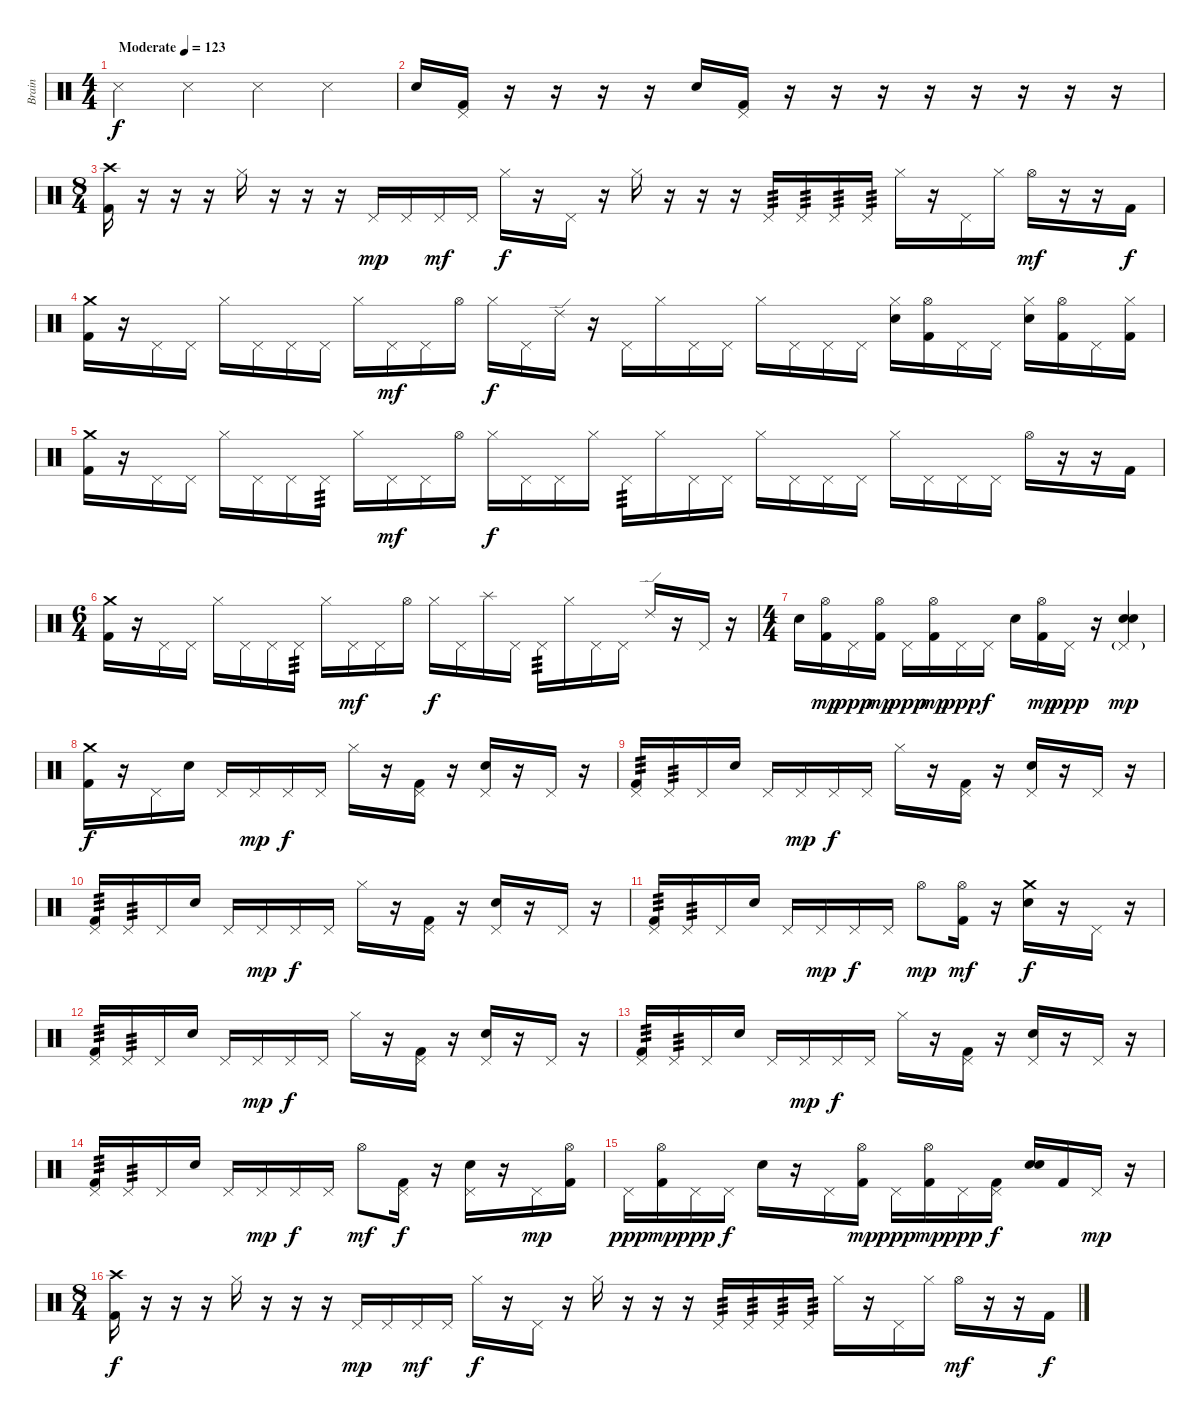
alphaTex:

\track ("Brain" "Brain") {instrument percussion}
\staff {score}
\articulation defaults
\ts (4 4)
\tempo (123 "Moderate")
\clef neutral
\ks c "Snare (side stick) 3".4{dy f} "Snare (side stick) 3".4 "Snare (side stick) 3".4 "Snare (side stick) 3".4
|
"Electric Snare (hit)".16 ("Pedal Hi-Hat (hit)" "Kick (hit) 2").16 r.16 r.16 r.16 r.16 "Electric Snare (hit)".16 ("Pedal Hi-Hat (hit)" "Kick (hit) 2").16 r.16 r.16 r.16 r.16 r.16 r.16 r.16 r.16 |
\ts (8 4)
("Crash high (hit)" "Kick (hit) 2").16 r.16 r.16 r.16 "Hi-Hat (closed)".16 r.16 r.16 r.16 "Pedal Hi-Hat (hit)".16{dy mp} "Pedal Hi-Hat (hit)".16 "Pedal Hi-Hat (hit)".16{dy mf} "Pedal Hi-Hat (hit)".16 "Hi-Hat (closed)".16{dy f} r.16 "Pedal Hi-Hat (hit)".16 r.16 "Hi-Hat (closed)".16 r.16 r.16 r.16 "Pedal Hi-Hat (hit)".16{tp 3} "Pedal Hi-Hat (hit)".16{tp 3} "Pedal Hi-Hat (hit)".16{tp 3} "Pedal Hi-Hat (hit)".16{tp 3} "Hi-Hat (closed)".16 r.16 "Pedal Hi-Hat (hit)".16 "Hi-Hat (closed)".16 "Hi-Hat (open)".16{dy mf} r.16 r.16 "Kick (hit) 2".16{dy f} |
("Crash medium (hit)" "Kick (hit) 2").16 r.16 "Pedal Hi-Hat (hit)".16 "Pedal Hi-Hat (hit)".16 "Hi-Hat (closed)".16 "Pedal Hi-Hat (hit)".16 "Pedal Hi-Hat (hit)".16 "Pedal Hi-Hat (hit)".16 "Hi-Hat (closed)".16 "Pedal Hi-Hat (hit)".16{dy mf} "Pedal Hi-Hat (hit)".16 "Hi-Hat (open)".16 "Hi-Hat (closed)".16{dy f} "Pedal Hi-Hat (hit)".16 "Ride (edge) 2".16 r.16 "Pedal Hi-Hat (hit)".16 "Hi-Hat (closed)".16 "Pedal Hi-Hat (hit)".16 "Pedal Hi-Hat (hit)".16 "Hi-Hat (closed)".16 "Pedal Hi-Hat (hit)".16 "Pedal Hi-Hat (hit)".16 "Pedal Hi-Hat (hit)".16 ("Hi-Hat (closed)" "Electric Snare (hit)").16 ("Hi-Hat (open)" "Kick (hit) 2").16 "Pedal Hi-Hat (hit)".16 "Pedal Hi-Hat (hit)".16 ("Hi-Hat (closed)" "Electric Snare (hit)").16 ("Hi-Hat (open)" "Kick (hit) 2").16 "Pedal Hi-Hat (hit)".16 ("Hi-Hat (closed)" "Kick (hit) 2").16 |
("Crash medium (hit)" "Kick (hit) 2").16 r.16 "Pedal Hi-Hat (hit)".16 "Pedal Hi-Hat (hit)".16 "Hi-Hat (closed)".16 "Pedal Hi-Hat (hit)".16 "Pedal Hi-Hat (hit)".16 "Pedal Hi-Hat (hit)".16{tp 3} "Hi-Hat (closed)".16 "Pedal Hi-Hat (hit)".16{dy mf} "Pedal Hi-Hat (hit)".16 "Hi-Hat (open)".16 "Hi-Hat (closed)".16{dy f} "Pedal Hi-Hat (hit)".16 "Pedal Hi-Hat (hit)".16 "Hi-Hat (closed)".16 "Pedal Hi-Hat (hit)".16{tp 3} "Hi-Hat (closed)".16 "Pedal Hi-Hat (hit)".16 "Pedal Hi-Hat (hit)".16 "Hi-Hat (closed)".16 "Pedal Hi-Hat (hit)".16 "Pedal Hi-Hat (hit)".16 "Pedal Hi-Hat (hit)".16 "Hi-Hat (closed)".16 "Pedal Hi-Hat (hit)".16 "Pedal Hi-Hat (hit)".16 "Pedal Hi-Hat (hit)".16 "Hi-Hat (open)".16 r.16 r.16 "Kick (hit) 2".16 |
\ts (6 4)
("Crash medium (hit)" "Kick (hit) 2").16 r.16 "Pedal Hi-Hat (hit)".16 "Pedal Hi-Hat (hit)".16 "Hi-Hat (closed)".16 "Pedal Hi-Hat (hit)".16 "Pedal Hi-Hat (hit)".16 "Pedal Hi-Hat (hit)".16{tp 3} "Hi-Hat (closed)".16 "Pedal Hi-Hat (hit)".16{dy mf} "Pedal Hi-Hat (hit)".16 "Hi-Hat (open)".16 "Hi-Hat (closed)".16{dy f} "Pedal Hi-Hat (hit)".16 "Splash (hit)".16 "Pedal Hi-Hat (hit)".16 "Pedal Hi-Hat (hit)".16{tp 3} "Hi-Hat (closed)".16 "Pedal Hi-Hat (hit)".16 "Pedal Hi-Hat (hit)".16 "Ride (edge) 2".16 r.16 "Pedal Hi-Hat (hit)".16 r.16 |
\ts (4 4)
"Electric Snare (hit)".16 ("Hi-Hat (open)" "Kick (hit) 2").16{dy mp} "Pedal Hi-Hat (hit)".16{dy ppp} ("Hi-Hat (open)" "Kick (hit) 2").16{dy mp} "Pedal Hi-Hat (hit)".16{dy ppp} ("Hi-Hat (open)" "Kick (hit) 2").16{dy mp} "Pedal Hi-Hat (hit)".16{dy ppp} "Pedal Hi-Hat (hit)".16{dy f} "Electric Snare (hit)".16 ("Hi-Hat (open)" "Kick (hit) 2").16{dy mp} "Pedal Hi-Hat (hit)".16{dy ppp} r.16 ("Pedal Hi-Hat (hit)"{g} "Electric Snare (hit)" "Electric Snare (hit)").4{bd 60 dy mp} |
("Crash medium (hit)" "Kick (hit) 2").16{dy f} r.16 "Pedal Hi-Hat (hit)".16 "Electric Snare (hit)".16 "Pedal Hi-Hat (hit)".16 "Pedal Hi-Hat (hit)".16{dy mp} "Pedal Hi-Hat (hit)".16{dy f} "Pedal Hi-Hat (hit)".16 "Hi-Hat (closed)".16 r.16 ("Pedal Hi-Hat (hit)" "Kick (hit) 2").16 r.16 ("Pedal Hi-Hat (hit)" "Electric Snare (hit)").16 r.16 "Pedal Hi-Hat (hit)".16 r.16 |
("Pedal Hi-Hat (hit)" "Kick (hit) 2").16{tp 3} "Pedal Hi-Hat (hit)".16{tp 3} "Pedal Hi-Hat (hit)".16 "Electric Snare (hit)".16 "Pedal Hi-Hat (hit)".16 "Pedal Hi-Hat (hit)".16{dy mp} "Pedal Hi-Hat (hit)".16{dy f} "Pedal Hi-Hat (hit)".16 "Hi-Hat (closed)".16 r.16 ("Pedal Hi-Hat (hit)" "Kick (hit) 2").16 r.16 ("Pedal Hi-Hat (hit)" "Electric Snare (hit)").16 r.16 "Pedal Hi-Hat (hit)".16 r.16 |
("Pedal Hi-Hat (hit)" "Kick (hit) 2").16{tp 3} "Pedal Hi-Hat (hit)".16{tp 3} "Pedal Hi-Hat (hit)".16 "Electric Snare (hit)".16 "Pedal Hi-Hat (hit)".16 "Pedal Hi-Hat (hit)".16{dy mp} "Pedal Hi-Hat (hit)".16{dy f} "Pedal Hi-Hat (hit)".16 "Hi-Hat (closed)".16 r.16 ("Pedal Hi-Hat (hit)" "Kick (hit) 2").16 r.16 ("Pedal Hi-Hat (hit)" "Electric Snare (hit)").16 r.16 "Pedal Hi-Hat (hit)".16 r.16 |
("Pedal Hi-Hat (hit)" "Kick (hit) 2").16{tp 3} "Pedal Hi-Hat (hit)".16{tp 3} "Pedal Hi-Hat (hit)".16 "Electric Snare (hit)".16 "Pedal Hi-Hat (hit)".16 "Pedal Hi-Hat (hit)".16{dy mp} "Pedal Hi-Hat (hit)".16{dy f} "Pedal Hi-Hat (hit)".16 "Hi-Hat (open)".8{dy mp} ("Hi-Hat (open)" "Kick (hit) 2").16{dy mf} r.16 ("Crash medium (hit)" "Electric Snare (hit)").16{dy f} r.16 "Pedal Hi-Hat (hit)".16 r.16 |
("Pedal Hi-Hat (hit)" "Kick (hit) 2").16{tp 3} "Pedal Hi-Hat (hit)".16{tp 3} "Pedal Hi-Hat (hit)".16 "Electric Snare (hit)".16 "Pedal Hi-Hat (hit)".16 "Pedal Hi-Hat (hit)".16{dy mp} "Pedal Hi-Hat (hit)".16{dy f} "Pedal Hi-Hat (hit)".16 "Hi-Hat (closed)".16 r.16 ("Pedal Hi-Hat (hit)" "Kick (hit) 2").16 r.16 ("Pedal Hi-Hat (hit)" "Electric Snare (hit)").16 r.16 "Pedal Hi-Hat (hit)".16 r.16 |
("Pedal Hi-Hat (hit)" "Kick (hit) 2").16{tp 3} "Pedal Hi-Hat (hit)".16{tp 3} "Pedal Hi-Hat (hit)".16 "Electric Snare (hit)".16 "Pedal Hi-Hat (hit)".16 "Pedal Hi-Hat (hit)".16{dy mp} "Pedal Hi-Hat (hit)".16{dy f} "Pedal Hi-Hat (hit)".16 "Hi-Hat (closed)".16 r.16 ("Pedal Hi-Hat (hit)" "Kick (hit) 2").16 r.16 ("Pedal Hi-Hat (hit)" "Electric Snare (hit)").16 r.16 "Pedal Hi-Hat (hit)".16 r.16 |
("Pedal Hi-Hat (hit)" "Kick (hit) 2").16{tp 3} "Pedal Hi-Hat (hit)".16{tp 3} "Pedal Hi-Hat (hit)".16 "Electric Snare (hit)".16 "Pedal Hi-Hat (hit)".16 "Pedal Hi-Hat (hit)".16{dy mp} "Pedal Hi-Hat (hit)".16{dy f} "Pedal Hi-Hat (hit)".16 "Hi-Hat (open)".8{dy mf} ("Pedal Hi-Hat (hit)" "Kick (hit) 2").16{dy f} r.16 ("Pedal Hi-Hat (hit)" "Electric Snare (hit)").16 r.16 "Pedal Hi-Hat (hit)".16{dy mp} ("Hi-Hat (open)" "Kick (hit) 2").16 |
"Pedal Hi-Hat (hit)".16{dy ppp} ("Hi-Hat (open)" "Kick (hit) 2").16{dy mp} "Pedal Hi-Hat (hit)".16{dy ppp} "Pedal Hi-Hat (hit)".16{dy f} "Electric Snare (hit)".16 r.16 "Pedal Hi-Hat (hit)".16 ("Hi-Hat (open)" "Kick (hit) 2").16{dy mp} "Pedal Hi-Hat (hit)".16{dy ppp} ("Hi-Hat (open)" "Kick (hit) 2").16{dy mp} "Pedal Hi-Hat (hit)".16{dy ppp} ("Pedal Hi-Hat (hit)" "Kick (hit) 2").16{dy f} ("Electric Snare (hit)" "Electric Snare (hit)").16{bd 120} "Kick (hit) 2".16 "Pedal Hi-Hat (hit)".16{dy mp} r.16 |
\ts (8 4)
("Crash high (hit)" "Kick (hit) 2").16{dy f} r.16 r.16 r.16 "Hi-Hat (closed)".16 r.16 r.16 r.16 "Pedal Hi-Hat (hit)".16{dy mp} "Pedal Hi-Hat (hit)".16 "Pedal Hi-Hat (hit)".16{dy mf} "Pedal Hi-Hat (hit)".16 "Hi-Hat (closed)".16{dy f} r.16 "Pedal Hi-Hat (hit)".16 r.16 "Hi-Hat (closed)".16 r.16 r.16 r.16 "Pedal Hi-Hat (hit)".16{tp 3} "Pedal Hi-Hat (hit)".16{tp 3} "Pedal Hi-Hat (hit)".16{tp 3} "Pedal Hi-Hat (hit)".16{tp 3} "Hi-Hat (closed)".16 r.16 "Pedal Hi-Hat (hit)".16 "Hi-Hat (closed)".16 "Hi-Hat (open)".16{dy mf} r.16 r.16 "Kick (hit) 2".16{dy f}
